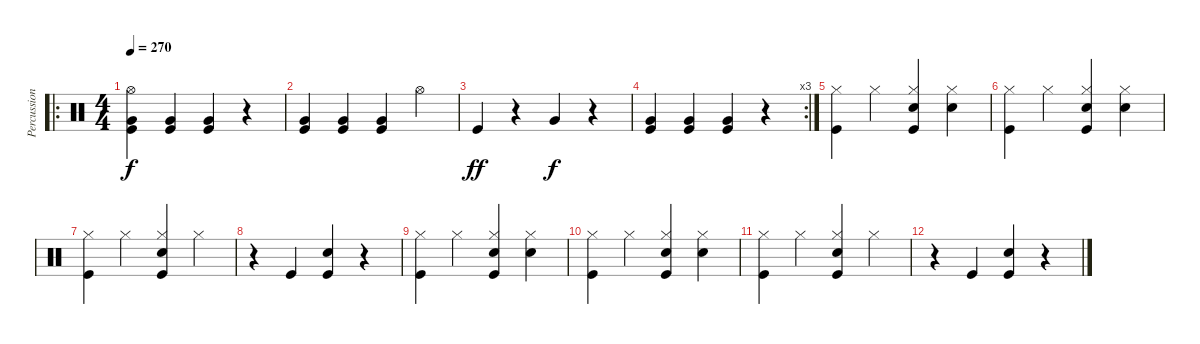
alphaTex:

\track ("Percussions" "Percussion") {instrument percussion}
\staff {score}
\articulation defaults
\ro
\ts (4 4)
\tempo 270
\clef neutral
\ks c
("Hi-Hat (open)" "Kick (hit)" "Very Low Tom (hit)").4{dy f} ("Kick (hit)" "Very Low Tom (hit)").4 ("Kick (hit)" "Very Low Tom (hit)").4 r.4 |
("Kick (hit)" "Very Low Tom (hit)").4 ("Kick (hit)" "Very Low Tom (hit)").4 ("Kick (hit)" "Very Low Tom (hit)").4 "Hi-Hat (open)".4 |
"Kick (hit)".4{dy ff} r.4 "Very Low Tom (hit)".4{dy f} r.4 |
\rc 3
("Very Low Tom (hit)" "Kick (hit)").4 ("Very Low Tom (hit)" "Kick (hit)").4 ("Very Low Tom (hit)" "Kick (hit)").4 r.4 |
("Hi-Hat (closed)" "Kick (hit)").4 "Hi-Hat (closed)".4 ("Hi-Hat (closed)" "Snare (hit) 2" "Kick (hit)").4 ("Hi-Hat (closed)" "Snare (hit) 2").4 |
("Hi-Hat (closed)" "Kick (hit)").4 "Hi-Hat (closed)".4 ("Hi-Hat (closed)" "Snare (hit) 2" "Kick (hit)").4 ("Hi-Hat (closed)" "Snare (hit) 2").4 |
("Hi-Hat (closed)" "Kick (hit)").4 "Hi-Hat (closed)".4 ("Hi-Hat (closed)" "Snare (hit) 2" "Kick (hit)").4 "Hi-Hat (closed)".4 |
r.4 "Kick (hit)".4 ("Kick (hit)" "Snare (hit) 2").4 r.4 |
("Hi-Hat (closed)" "Kick (hit)").4 "Hi-Hat (closed)".4 ("Hi-Hat (closed)" "Snare (hit) 2" "Kick (hit)").4 ("Hi-Hat (closed)" "Snare (hit) 2").4 |
("Hi-Hat (closed)" "Kick (hit)").4 "Hi-Hat (closed)".4 ("Hi-Hat (closed)" "Snare (hit) 2" "Kick (hit)").4 ("Hi-Hat (closed)" "Snare (hit) 2").4 |
("Hi-Hat (closed)" "Kick (hit)").4 "Hi-Hat (closed)".4 ("Hi-Hat (closed)" "Snare (hit) 2" "Kick (hit)").4 "Hi-Hat (closed)".4 |
r.4 "Kick (hit)".4 ("Kick (hit)" "Snare (hit) 2").4 r.4
